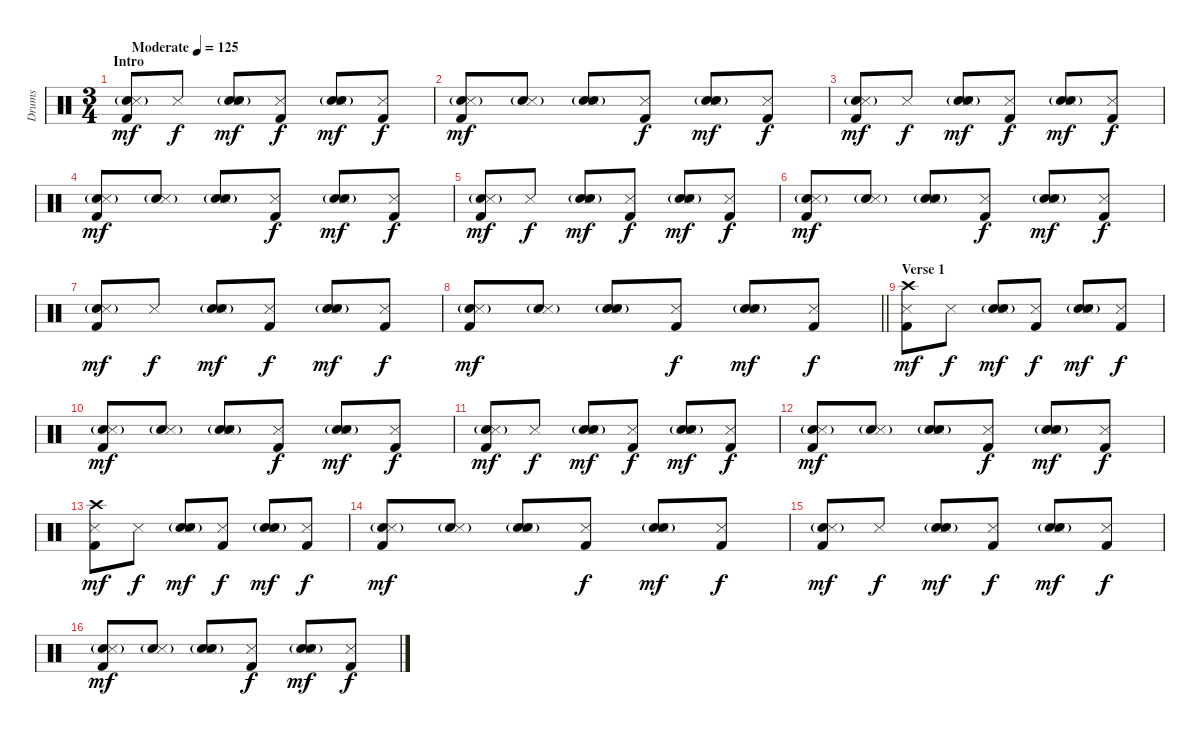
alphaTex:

\track ("Drums" "Drums") {instrument percussion}
\staff {score}
\articulation defaults
\ts (3 4)
\section ("" "Intro")
\tempo (125 "Moderate")
\clef neutral
\ks c
("Hand Clap (hit)"{g} "Snare (side stick) 3" "Kick (hit) 2").8{dy mf} "Snare (side stick) 3".8{dy f} ("Hand Clap (hit)"{g} "Snare (side stick) 3" "Electric Snare (hit)").8{dy mf} ("Snare (side stick) 3" "Kick (hit) 2").8{dy f} ("Hand Clap (hit)"{g} "Snare (side stick) 3" "Electric Snare (hit)").8{dy mf} ("Snare (side stick) 3" "Kick (hit) 2").8{dy f} |
("Hand Clap (hit)"{g} "Snare (side stick) 3" "Kick (hit) 2").8{dy mf} ("Hand Clap (hit)"{g} "Snare (side stick) 3").8 ("Hand Clap (hit)"{g} "Snare (side stick) 3" "Electric Snare (hit)").8 ("Snare (side stick) 3" "Kick (hit) 2").8{dy f} ("Hand Clap (hit)"{g} "Snare (side stick) 3" "Electric Snare (hit)").8{dy mf} ("Snare (side stick) 3" "Kick (hit) 2").8{dy f} |
("Hand Clap (hit)"{g} "Snare (side stick) 3" "Kick (hit) 2").8{dy mf} "Snare (side stick) 3".8{dy f} ("Hand Clap (hit)"{g} "Snare (side stick) 3" "Electric Snare (hit)").8{dy mf} ("Snare (side stick) 3" "Kick (hit) 2").8{dy f} ("Hand Clap (hit)"{g} "Snare (side stick) 3" "Electric Snare (hit)").8{dy mf} ("Snare (side stick) 3" "Kick (hit) 2").8{dy f} |
("Hand Clap (hit)"{g} "Snare (side stick) 3" "Kick (hit) 2").8{dy mf} ("Hand Clap (hit)"{g} "Snare (side stick) 3").8 ("Hand Clap (hit)"{g} "Snare (side stick) 3" "Electric Snare (hit)").8 ("Snare (side stick) 3" "Kick (hit) 2").8{dy f} ("Hand Clap (hit)"{g} "Snare (side stick) 3" "Electric Snare (hit)").8{dy mf} ("Snare (side stick) 3" "Kick (hit) 2").8{dy f} |
("Hand Clap (hit)"{g} "Snare (side stick) 3" "Kick (hit) 2").8{dy mf} "Snare (side stick) 3".8{dy f} ("Hand Clap (hit)"{g} "Snare (side stick) 3" "Electric Snare (hit)").8{dy mf} ("Snare (side stick) 3" "Kick (hit) 2").8{dy f} ("Hand Clap (hit)"{g} "Snare (side stick) 3" "Electric Snare (hit)").8{dy mf} ("Snare (side stick) 3" "Kick (hit) 2").8{dy f} |
("Hand Clap (hit)"{g} "Snare (side stick) 3" "Kick (hit) 2").8{dy mf} ("Hand Clap (hit)"{g} "Snare (side stick) 3").8 ("Hand Clap (hit)"{g} "Snare (side stick) 3" "Electric Snare (hit)").8 ("Snare (side stick) 3" "Kick (hit) 2").8{dy f} ("Hand Clap (hit)"{g} "Snare (side stick) 3" "Electric Snare (hit)").8{dy mf} ("Snare (side stick) 3" "Kick (hit) 2").8{dy f} |
("Hand Clap (hit)"{g} "Snare (side stick) 3" "Kick (hit) 2").8{dy mf} "Snare (side stick) 3".8{dy f} ("Hand Clap (hit)"{g} "Snare (side stick) 3" "Electric Snare (hit)").8{dy mf} ("Snare (side stick) 3" "Kick (hit) 2").8{dy f} ("Hand Clap (hit)"{g} "Snare (side stick) 3" "Electric Snare (hit)").8{dy mf} ("Snare (side stick) 3" "Kick (hit) 2").8{dy f} |
\barLineRight lightlight
("Hand Clap (hit)"{g} "Snare (side stick) 3" "Kick (hit) 2").8{dy mf} ("Hand Clap (hit)"{g} "Snare (side stick) 3").8 ("Hand Clap (hit)"{g} "Snare (side stick) 3" "Electric Snare (hit)").8 ("Snare (side stick) 3" "Kick (hit) 2").8{dy f} ("Hand Clap (hit)"{g} "Snare (side stick) 3" "Electric Snare (hit)").8{dy mf} ("Snare (side stick) 3" "Kick (hit) 2").8{dy f} |
\section ("" "Verse 1")
("Crash high (hit)" "Snare (side stick) 3" "Kick (hit) 2").8{dy mf} "Snare (side stick) 3".8{dy f} ("Hand Clap (hit)"{g} "Snare (side stick) 3" "Electric Snare (hit)").8{dy mf} ("Snare (side stick) 3" "Kick (hit) 2").8{dy f} ("Hand Clap (hit)"{g} "Snare (side stick) 3" "Electric Snare (hit)").8{dy mf} ("Snare (side stick) 3" "Kick (hit) 2").8{dy f} |
("Hand Clap (hit)"{g} "Snare (side stick) 3" "Kick (hit) 2").8{dy mf} ("Hand Clap (hit)"{g} "Snare (side stick) 3").8 ("Hand Clap (hit)"{g} "Snare (side stick) 3" "Electric Snare (hit)").8 ("Snare (side stick) 3" "Kick (hit) 2").8{dy f} ("Hand Clap (hit)"{g} "Snare (side stick) 3" "Electric Snare (hit)").8{dy mf} ("Snare (side stick) 3" "Kick (hit) 2").8{dy f} |
("Hand Clap (hit)"{g} "Snare (side stick) 3" "Kick (hit) 2").8{dy mf} "Snare (side stick) 3".8{dy f} ("Hand Clap (hit)"{g} "Snare (side stick) 3" "Electric Snare (hit)").8{dy mf} ("Snare (side stick) 3" "Kick (hit) 2").8{dy f} ("Hand Clap (hit)"{g} "Snare (side stick) 3" "Electric Snare (hit)").8{dy mf} ("Snare (side stick) 3" "Kick (hit) 2").8{dy f} |
("Hand Clap (hit)"{g} "Snare (side stick) 3" "Kick (hit) 2").8{dy mf} ("Hand Clap (hit)"{g} "Snare (side stick) 3").8 ("Hand Clap (hit)"{g} "Snare (side stick) 3" "Electric Snare (hit)").8 ("Snare (side stick) 3" "Kick (hit) 2").8{dy f} ("Hand Clap (hit)"{g} "Snare (side stick) 3" "Electric Snare (hit)").8{dy mf} ("Snare (side stick) 3" "Kick (hit) 2").8{dy f} |
("Crash high (hit)" "Snare (side stick) 3" "Kick (hit) 2").8{dy mf} "Snare (side stick) 3".8{dy f} ("Hand Clap (hit)"{g} "Snare (side stick) 3" "Electric Snare (hit)").8{dy mf} ("Snare (side stick) 3" "Kick (hit) 2").8{dy f} ("Hand Clap (hit)"{g} "Snare (side stick) 3" "Electric Snare (hit)").8{dy mf} ("Snare (side stick) 3" "Kick (hit) 2").8{dy f} |
("Hand Clap (hit)"{g} "Snare (side stick) 3" "Kick (hit) 2").8{dy mf} ("Hand Clap (hit)"{g} "Snare (side stick) 3").8 ("Hand Clap (hit)"{g} "Snare (side stick) 3" "Electric Snare (hit)").8 ("Snare (side stick) 3" "Kick (hit) 2").8{dy f} ("Hand Clap (hit)"{g} "Snare (side stick) 3" "Electric Snare (hit)").8{dy mf} ("Snare (side stick) 3" "Kick (hit) 2").8{dy f} |
("Hand Clap (hit)"{g} "Snare (side stick) 3" "Kick (hit) 2").8{dy mf} "Snare (side stick) 3".8{dy f} ("Hand Clap (hit)"{g} "Snare (side stick) 3" "Electric Snare (hit)").8{dy mf} ("Snare (side stick) 3" "Kick (hit) 2").8{dy f} ("Hand Clap (hit)"{g} "Snare (side stick) 3" "Electric Snare (hit)").8{dy mf} ("Snare (side stick) 3" "Kick (hit) 2").8{dy f} |
("Hand Clap (hit)"{g} "Snare (side stick) 3" "Kick (hit) 2").8{dy mf} ("Hand Clap (hit)"{g} "Snare (side stick) 3").8 ("Hand Clap (hit)"{g} "Snare (side stick) 3" "Electric Snare (hit)").8 ("Snare (side stick) 3" "Kick (hit) 2").8{dy f} ("Hand Clap (hit)"{g} "Snare (side stick) 3" "Electric Snare (hit)").8{dy mf} ("Snare (side stick) 3" "Kick (hit) 2").8{dy f}
